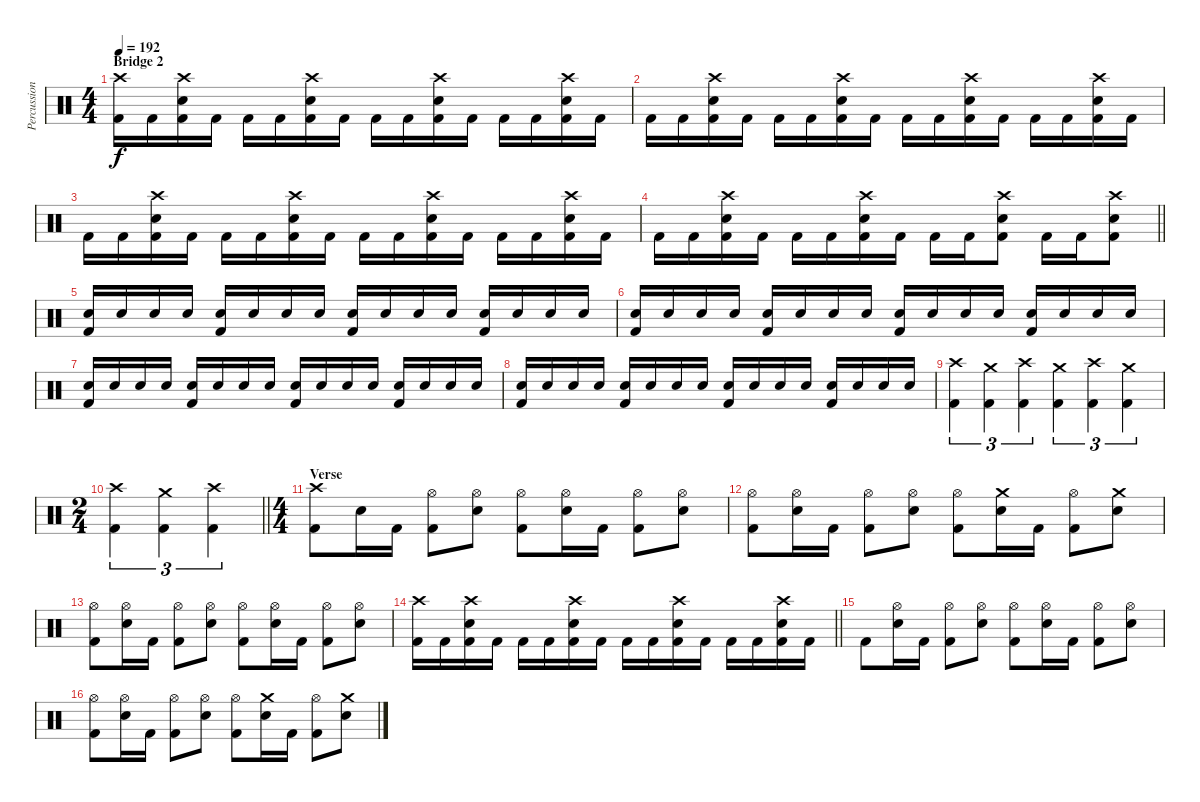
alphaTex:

\track ("Percussion" "Percussion") {instrument percussion}
\staff {score}
\articulation defaults
\ts (4 4)
\section ("" "Bridge 2")
\tempo 192
\clef neutral
\ks c
("Crash high (hit)" "Kick (hit) 2").16{dy f} "Kick (hit) 2".16 ("Crash high (hit)" "Electric Snare (hit)" "Kick (hit) 2").16 "Kick (hit) 2".16 "Kick (hit) 2".16 "Kick (hit) 2".16 ("Crash high (hit)" "Electric Snare (hit)" "Kick (hit) 2").16 "Kick (hit) 2".16 "Kick (hit) 2".16 "Kick (hit) 2".16 ("Crash high (hit)" "Electric Snare (hit)" "Kick (hit) 2").16 "Kick (hit) 2".16 "Kick (hit) 2".16 "Kick (hit) 2".16 ("Crash high (hit)" "Electric Snare (hit)" "Kick (hit) 2").16 "Kick (hit) 2".16 |
"Kick (hit) 2".16 "Kick (hit) 2".16 ("Crash high (hit)" "Electric Snare (hit)" "Kick (hit) 2").16 "Kick (hit) 2".16 "Kick (hit) 2".16 "Kick (hit) 2".16 ("Crash high (hit)" "Electric Snare (hit)" "Kick (hit) 2").16 "Kick (hit) 2".16 "Kick (hit) 2".16 "Kick (hit) 2".16 ("Crash high (hit)" "Electric Snare (hit)" "Kick (hit) 2").16 "Kick (hit) 2".16 "Kick (hit) 2".16 "Kick (hit) 2".16 ("Crash high (hit)" "Electric Snare (hit)" "Kick (hit) 2").16 "Kick (hit) 2".16 |
"Kick (hit) 2".16 "Kick (hit) 2".16 ("Crash high (hit)" "Electric Snare (hit)" "Kick (hit) 2").16 "Kick (hit) 2".16 "Kick (hit) 2".16 "Kick (hit) 2".16 ("Crash high (hit)" "Electric Snare (hit)" "Kick (hit) 2").16 "Kick (hit) 2".16 "Kick (hit) 2".16 "Kick (hit) 2".16 ("Crash high (hit)" "Electric Snare (hit)" "Kick (hit) 2").16 "Kick (hit) 2".16 "Kick (hit) 2".16 "Kick (hit) 2".16 ("Crash high (hit)" "Electric Snare (hit)" "Kick (hit) 2").16 "Kick (hit) 2".16 |
\barLineRight lightlight "Kick (hit) 2".16 "Kick (hit) 2".16
("Crash high (hit)" "Electric Snare (hit)" "Kick (hit) 2").16 "Kick (hit) 2".16 "Kick (hit) 2".16 "Kick (hit) 2".16 ("Crash high (hit)" "Electric Snare (hit)" "Kick (hit) 2").16 "Kick (hit) 2".16 "Kick (hit) 2".16 "Kick (hit) 2".16 ("Crash high (hit)" "Electric Snare (hit)" "Kick (hit) 2").8 "Kick (hit) 2".16 "Kick (hit) 2".16 ("Crash high (hit)" "Electric Snare (hit)" "Kick (hit) 2").8 |
("Electric Snare (hit)" "Kick (hit) 2").16 "Electric Snare (hit)".16 "Electric Snare (hit)".16 "Electric Snare (hit)".16 ("Electric Snare (hit)" "Kick (hit) 2").16 "Electric Snare (hit)".16 "Electric Snare (hit)".16 "Electric Snare (hit)".16 ("Electric Snare (hit)" "Kick (hit) 2").16 "Electric Snare (hit)".16 "Electric Snare (hit)".16 "Electric Snare (hit)".16 ("Electric Snare (hit)" "Kick (hit) 2").16 "Electric Snare (hit)".16 "Electric Snare (hit)".16 "Electric Snare (hit)".16 |
("Electric Snare (hit)" "Kick (hit) 2").16 "Electric Snare (hit)".16 "Electric Snare (hit)".16 "Electric Snare (hit)".16 ("Electric Snare (hit)" "Kick (hit) 2").16 "Electric Snare (hit)".16 "Electric Snare (hit)".16 "Electric Snare (hit)".16 ("Electric Snare (hit)" "Kick (hit) 2").16 "Electric Snare (hit)".16 "Electric Snare (hit)".16 "Electric Snare (hit)".16 ("Electric Snare (hit)" "Kick (hit) 2").16 "Electric Snare (hit)".16 "Electric Snare (hit)".16 "Electric Snare (hit)".16 |
("Electric Snare (hit)" "Kick (hit) 2").16 "Electric Snare (hit)".16 "Electric Snare (hit)".16 "Electric Snare (hit)".16 ("Electric Snare (hit)" "Kick (hit) 2").16 "Electric Snare (hit)".16 "Electric Snare (hit)".16 "Electric Snare (hit)".16 ("Electric Snare (hit)" "Kick (hit) 2").16 "Electric Snare (hit)".16 "Electric Snare (hit)".16 "Electric Snare (hit)".16 ("Electric Snare (hit)" "Kick (hit) 2").16 "Electric Snare (hit)".16 "Electric Snare (hit)".16 "Electric Snare (hit)".16 |
("Electric Snare (hit)" "Kick (hit) 2").16 "Electric Snare (hit)".16 "Electric Snare (hit)".16 "Electric Snare (hit)".16 ("Electric Snare (hit)" "Kick (hit) 2").16 "Electric Snare (hit)".16 "Electric Snare (hit)".16 "Electric Snare (hit)".16 ("Electric Snare (hit)" "Kick (hit) 2").16 "Electric Snare (hit)".16 "Electric Snare (hit)".16 "Electric Snare (hit)".16 ("Electric Snare (hit)" "Kick (hit) 2").16 "Electric Snare (hit)".16 "Electric Snare (hit)".16 "Electric Snare (hit)".16 |
("Crash high (hit)" "Kick (hit) 2").4{tu (3 2)} ("Crash medium (hit)" "Kick (hit) 2").4{tu (3 2)} ("Crash high (hit)" "Kick (hit) 2").4{tu (3 2)} ("Crash medium (hit)" "Kick (hit) 2").4{tu (3 2)} ("Crash high (hit)" "Kick (hit) 2").4{tu (3 2)} ("Crash medium (hit)" "Kick (hit) 2").4{tu (3 2)} |
\ts (2 4)
\barLineRight lightlight
("Crash high (hit)" "Kick (hit) 2").4{tu (3 2)} ("Crash medium (hit)" "Kick (hit) 2").4{tu (3 2)} ("Crash high (hit)" "Kick (hit) 2").4{tu (3 2)} |
\ts (4 4)
\section ("" "Verse")
("Crash high (hit)" "Kick (hit) 2").8 "Electric Snare (hit)".16 "Kick (hit) 2".16 ("Hi-Hat (open)" "Kick (hit) 2").8 ("Hi-Hat (open)" "Electric Snare (hit)").8 ("Hi-Hat (open)" "Kick (hit) 2").8 ("Hi-Hat (open)" "Electric Snare (hit)").16 "Kick (hit) 2".16 ("Hi-Hat (open)" "Kick (hit) 2").8 ("Hi-Hat (open)" "Electric Snare (hit)").8 |
("Hi-Hat (open)" "Kick (hit) 2").8 ("Hi-Hat (open)" "Electric Snare (hit)").16 "Kick (hit) 2".16 ("Hi-Hat (open)" "Kick (hit) 2").8 ("Hi-Hat (open)" "Electric Snare (hit)").8 ("Hi-Hat (open)" "Kick (hit) 2").8 ("Crash medium (hit)" "Electric Snare (hit)").16 "Kick (hit) 2".16 ("Hi-Hat (open)" "Kick (hit) 2").8 ("Crash medium (hit)" "Electric Snare (hit)").8 |
("Hi-Hat (open)" "Kick (hit) 2").8 ("Hi-Hat (open)" "Electric Snare (hit)").16 "Kick (hit) 2".16 ("Hi-Hat (open)" "Kick (hit) 2").8 ("Hi-Hat (open)" "Electric Snare (hit)").8 ("Hi-Hat (open)" "Kick (hit) 2").8 ("Hi-Hat (open)" "Electric Snare (hit)").16 "Kick (hit) 2".16 ("Hi-Hat (open)" "Kick (hit) 2").8 ("Hi-Hat (open)" "Electric Snare (hit)").8 |
\barLineRight lightlight
("Crash high (hit)" "Kick (hit) 2").16 "Kick (hit) 2".16 ("Crash high (hit)" "Electric Snare (hit)" "Kick (hit) 2").16 "Kick (hit) 2".16 "Kick (hit) 2".16 "Kick (hit) 2".16 ("Crash high (hit)" "Electric Snare (hit)" "Kick (hit) 2").16 "Kick (hit) 2".16 "Kick (hit) 2".16 "Kick (hit) 2".16 ("Crash high (hit)" "Electric Snare (hit)" "Kick (hit) 2").16 "Kick (hit) 2".16 "Kick (hit) 2".16 "Kick (hit) 2".16 ("Crash high (hit)" "Electric Snare (hit)" "Kick (hit) 2").16 "Kick (hit) 2".16 |
"Kick (hit) 2".8 ("Hi-Hat (open)" "Electric Snare (hit)").16 "Kick (hit) 2".16 ("Hi-Hat (open)" "Kick (hit) 2").8 ("Hi-Hat (open)" "Electric Snare (hit)").8 ("Hi-Hat (open)" "Kick (hit) 2").8 ("Hi-Hat (open)" "Electric Snare (hit)").16 "Kick (hit) 2".16 ("Hi-Hat (open)" "Kick (hit) 2").8 ("Hi-Hat (open)" "Electric Snare (hit)").8 |
("Hi-Hat (open)" "Kick (hit) 2").8 ("Hi-Hat (open)" "Electric Snare (hit)").16 "Kick (hit) 2".16 ("Hi-Hat (open)" "Kick (hit) 2").8 ("Hi-Hat (open)" "Electric Snare (hit)").8 ("Hi-Hat (open)" "Kick (hit) 2").8 ("Crash medium (hit)" "Electric Snare (hit)").16 "Kick (hit) 2".16 ("Hi-Hat (open)" "Kick (hit) 2").8 ("Crash medium (hit)" "Electric Snare (hit)").8
